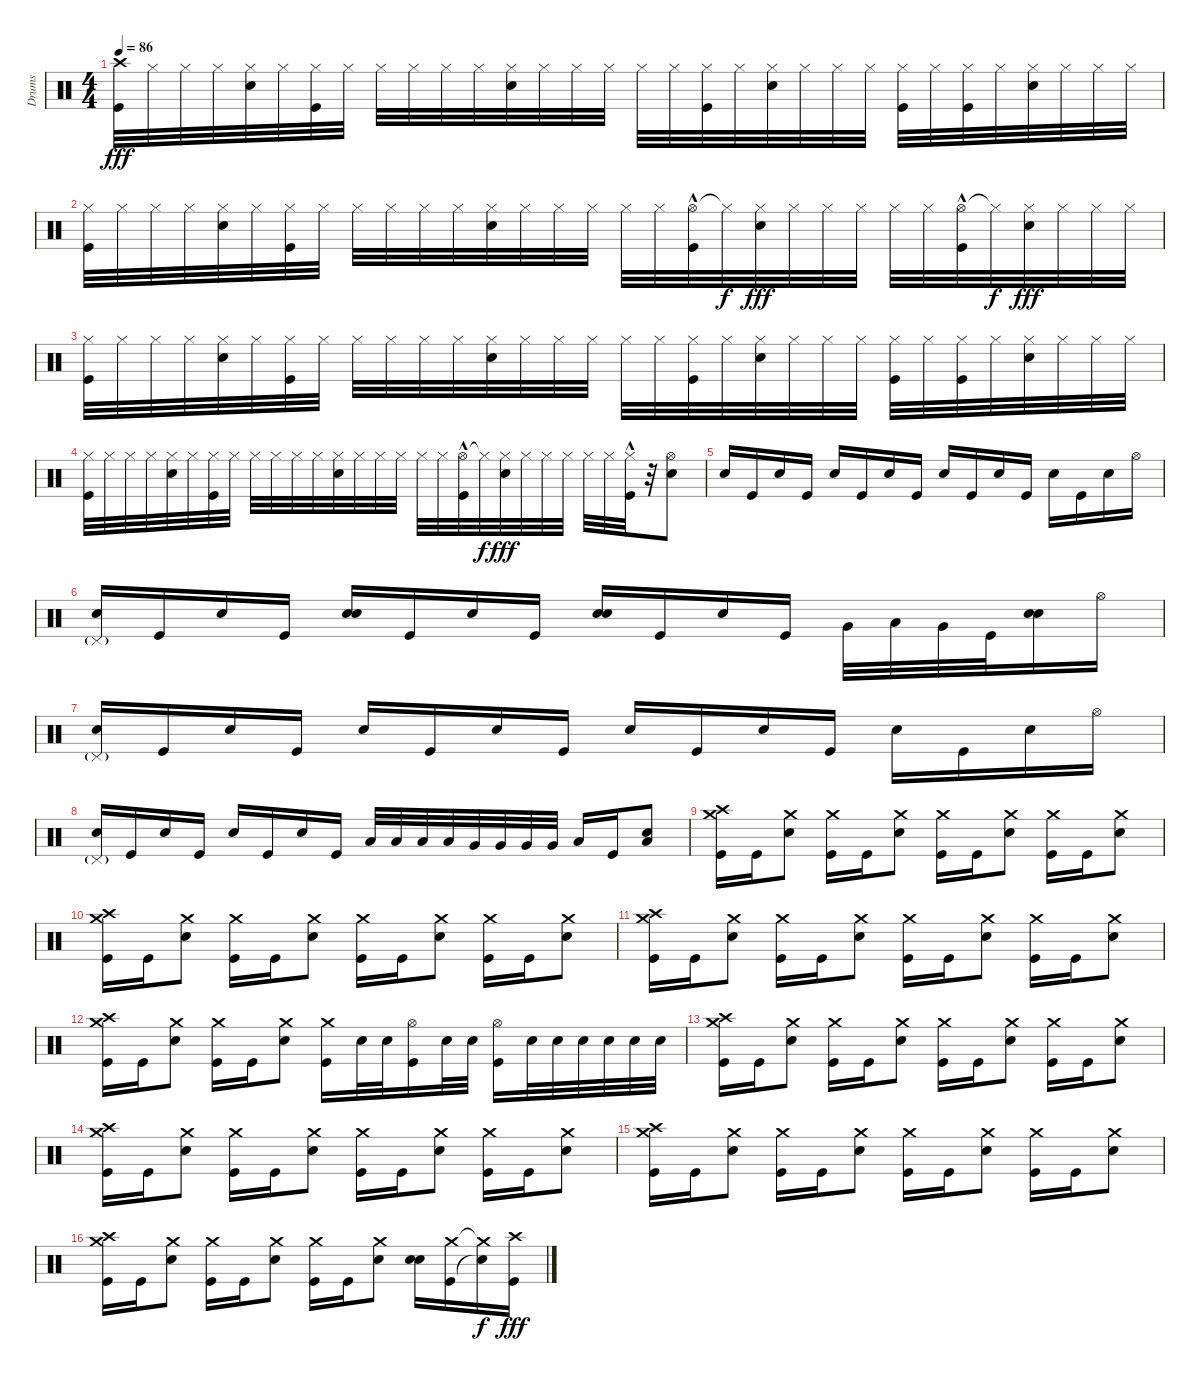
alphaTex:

\track ("Drums" "Drums") {instrument percussion}
\staff {score}
\articulation defaults
\ts (4 4)
\tempo 86
\clef neutral
\ks c
("Crash high (hit)" "Kick (hit)").32{dy fff} "Hi-Hat (closed)".32 "Hi-Hat (closed)".32 "Hi-Hat (closed)".32 ("Hi-Hat (closed)" "Electric Snare (hit)").32 "Hi-Hat (closed)".32 ("Hi-Hat (closed)" "Kick (hit)").32 "Hi-Hat (closed)".32 "Hi-Hat (closed)".32 "Hi-Hat (closed)".32 "Hi-Hat (closed)".32 "Hi-Hat (closed)".32 ("Hi-Hat (closed)" "Electric Snare (hit)").32 "Hi-Hat (closed)".32 "Hi-Hat (closed)".32 "Hi-Hat (closed)".32 "Hi-Hat (closed)".32 "Hi-Hat (closed)".32 ("Hi-Hat (closed)" "Kick (hit)").32 "Hi-Hat (closed)".32 ("Hi-Hat (closed)" "Electric Snare (hit)").32 "Hi-Hat (closed)".32 "Hi-Hat (closed)".32 "Hi-Hat (closed)".32 ("Hi-Hat (closed)" "Kick (hit)").32 "Hi-Hat (closed)".32 ("Hi-Hat (closed)" "Kick (hit)").32 "Hi-Hat (closed)".32 ("Hi-Hat (closed)" "Electric Snare (hit)").32 "Hi-Hat (closed)".32 "Hi-Hat (closed)".32 "Hi-Hat (closed)".32 |
("Hi-Hat (closed)" "Kick (hit)").32 "Hi-Hat (closed)".32 "Hi-Hat (closed)".32 "Hi-Hat (closed)".32 ("Hi-Hat (closed)" "Electric Snare (hit)").32 "Hi-Hat (closed)".32 ("Hi-Hat (closed)" "Kick (hit)").32 "Hi-Hat (closed)".32 "Hi-Hat (closed)".32 "Hi-Hat (closed)".32 "Hi-Hat (closed)".32 "Hi-Hat (closed)".32 ("Hi-Hat (closed)" "Electric Snare (hit)").32 "Hi-Hat (closed)".32 "Hi-Hat (closed)".32 "Hi-Hat (closed)".32 "Hi-Hat (closed)".32 "Hi-Hat (closed)".32 ("Hi-Hat (open)"{hac} "Kick (hit)").32 "Hi-Hat (closed)"{t}.32{dy f} ("Hi-Hat (closed)" "Electric Snare (hit)").32{dy fff} "Hi-Hat (closed)".32 "Hi-Hat (closed)".32 "Hi-Hat (closed)".32 "Hi-Hat (closed)".32 "Hi-Hat (closed)".32 ("Hi-Hat (open)"{hac} "Kick (hit)").32 "Hi-Hat (closed)"{t}.32{dy f} ("Hi-Hat (closed)" "Electric Snare (hit)").32{dy fff} "Hi-Hat (closed)".32 "Hi-Hat (closed)".32 "Hi-Hat (closed)".32 |
("Hi-Hat (closed)" "Kick (hit)").32 "Hi-Hat (closed)".32 "Hi-Hat (closed)".32 "Hi-Hat (closed)".32 ("Hi-Hat (closed)" "Electric Snare (hit)").32 "Hi-Hat (closed)".32 ("Hi-Hat (closed)" "Kick (hit)").32 "Hi-Hat (closed)".32 "Hi-Hat (closed)".32 "Hi-Hat (closed)".32 "Hi-Hat (closed)".32 "Hi-Hat (closed)".32 ("Hi-Hat (closed)" "Electric Snare (hit)").32 "Hi-Hat (closed)".32 "Hi-Hat (closed)".32 "Hi-Hat (closed)".32 "Hi-Hat (closed)".32 "Hi-Hat (closed)".32 ("Hi-Hat (closed)" "Kick (hit)").32 "Hi-Hat (closed)".32 ("Hi-Hat (closed)" "Electric Snare (hit)").32 "Hi-Hat (closed)".32 "Hi-Hat (closed)".32 "Hi-Hat (closed)".32 ("Hi-Hat (closed)" "Kick (hit)").32 "Hi-Hat (closed)".32 ("Hi-Hat (closed)" "Kick (hit)").32 "Hi-Hat (closed)".32 ("Hi-Hat (closed)" "Electric Snare (hit)").32 "Hi-Hat (closed)".32 "Hi-Hat (closed)".32 "Hi-Hat (closed)".32 |
("Hi-Hat (closed)" "Kick (hit)").32 "Hi-Hat (closed)".32 "Hi-Hat (closed)".32 "Hi-Hat (closed)".32 ("Hi-Hat (closed)" "Electric Snare (hit)").32 "Hi-Hat (closed)".32 ("Hi-Hat (closed)" "Kick (hit)").32 "Hi-Hat (closed)".32 "Hi-Hat (closed)".32 "Hi-Hat (closed)".32 "Hi-Hat (closed)".32 "Hi-Hat (closed)".32 ("Hi-Hat (closed)" "Electric Snare (hit)").32 "Hi-Hat (closed)".32 "Hi-Hat (closed)".32 "Hi-Hat (closed)".32 "Hi-Hat (closed)".32 "Hi-Hat (closed)".32 ("Hi-Hat (open)"{hac} "Kick (hit)").32 "Hi-Hat (closed)"{t}.32{dy f} ("Hi-Hat (closed)" "Electric Snare (hit)").32{dy fff} "Hi-Hat (closed)".32 "Hi-Hat (closed)".32 "Hi-Hat (closed)".32 "Hi-Hat (closed)".32 "Hi-Hat (closed)".32 ("Hi-Hat (closed)"{hac} "Kick (hit)").32 r.32 ("Hi-Hat (open)" "Electric Snare (hit)").8 |
"Electric Snare (hit)".16 "Kick (hit)".16 "Electric Snare (hit)".16 "Kick (hit)".16 "Electric Snare (hit)".16 "Kick (hit)".16 "Electric Snare (hit)".16 "Kick (hit)".16 "Electric Snare (hit)".16 "Kick (hit)".16 "Electric Snare (hit)".16 "Kick (hit)".16 "Electric Snare (hit)".16 "Kick (hit)".16 "Electric Snare (hit)".16 "Hi-Hat (open)".16 |
("Pedal Hi-Hat (hit)"{g} "Electric Snare (hit)").16 "Kick (hit)".16 "Electric Snare (hit)".16 "Kick (hit)".16 ("Electric Snare (hit)" "Electric Snare (hit)").16 "Kick (hit)".16 "Electric Snare (hit)".16 "Kick (hit)".16 ("Electric Snare (hit)" "Electric Snare (hit)").16 "Kick (hit)".16 "Electric Snare (hit)".16 "Kick (hit)".16 "Very Low Tom (hit)".32 "Low Tom (hit)".32 "Very Low Tom (hit)".32 "Kick (hit)".32 ("Electric Snare (hit)" "Electric Snare (hit)").16 "Hi-Hat (open)".16 |
("Pedal Hi-Hat (hit)"{g} "Electric Snare (hit)").16 "Kick (hit)".16 "Electric Snare (hit)".16 "Kick (hit)".16 "Electric Snare (hit)".16 "Kick (hit)".16 "Electric Snare (hit)".16 "Kick (hit)".16 "Electric Snare (hit)".16 "Kick (hit)".16 "Electric Snare (hit)".16 "Kick (hit)".16 "Electric Snare (hit)".16 "Kick (hit)".16 "Electric Snare (hit)".16 "Hi-Hat (open)".16 |
("Pedal Hi-Hat (hit)"{g} "Electric Snare (hit)").16 "Kick (hit)".16 "Electric Snare (hit)".16 "Kick (hit)".16 "Electric Snare (hit)".16 "Kick (hit)".16 "Electric Snare (hit)".16 "Kick (hit)".16 "Low Tom (hit)".32 "Low Tom (hit)".32 "Low Tom (hit)".32 "Low Tom (hit)".32 "Very Low Tom (hit)".32 "Very Low Tom (hit)".32 "Very Low Tom (hit)".32 "Very Low Tom (hit)".32 "Low Floor Tom (hit)".16 "Kick (hit)".16 ("Low Floor Tom (hit)" "Electric Snare (hit)").8 |
("Crash high (hit)" "Crash medium (hit)" "Kick (hit)").16 "Kick (hit)".16 ("Crash medium (hit)" "Electric Snare (hit)").8 ("Crash medium (hit)" "Kick (hit)").16 "Kick (hit)".16 ("Crash medium (hit)" "Electric Snare (hit)").8 ("Crash medium (hit)" "Kick (hit)").16 "Kick (hit)".16 ("Crash medium (hit)" "Electric Snare (hit)").8 ("Crash medium (hit)" "Kick (hit)").16 "Kick (hit)".16 ("Crash medium (hit)" "Electric Snare (hit)").8 |
("Crash high (hit)" "Crash medium (hit)" "Kick (hit)").16 "Kick (hit)".16 ("Crash medium (hit)" "Electric Snare (hit)").8 ("Crash medium (hit)" "Kick (hit)").16 "Kick (hit)".16 ("Crash medium (hit)" "Electric Snare (hit)").8 ("Crash medium (hit)" "Kick (hit)").16 "Kick (hit)".16 ("Crash medium (hit)" "Electric Snare (hit)").8 ("Crash medium (hit)" "Kick (hit)").16 "Kick (hit)".16 ("Crash medium (hit)" "Electric Snare (hit)").8 |
("Crash high (hit)" "Crash medium (hit)" "Kick (hit)").16 "Kick (hit)".16 ("Crash medium (hit)" "Electric Snare (hit)").8 ("Crash medium (hit)" "Kick (hit)").16 "Kick (hit)".16 ("Crash medium (hit)" "Electric Snare (hit)").8 ("Crash medium (hit)" "Kick (hit)").16 "Kick (hit)".16 ("Crash medium (hit)" "Electric Snare (hit)").8 ("Crash medium (hit)" "Kick (hit)").16 "Kick (hit)".16 ("Crash medium (hit)" "Electric Snare (hit)").8 |
("Crash high (hit)" "Crash medium (hit)" "Kick (hit)").16 "Kick (hit)".16 ("Crash medium (hit)" "Electric Snare (hit)").8 ("Crash medium (hit)" "Kick (hit)").16 "Kick (hit)".16 ("Crash medium (hit)" "Electric Snare (hit)").8 ("Crash medium (hit)" "Kick (hit)").16 "Electric Snare (hit)".32 "Electric Snare (hit)".32 ("Hi-Hat (open)" "Kick (hit)").16 "Electric Snare (hit)".32 "Electric Snare (hit)".32 ("Hi-Hat (open)" "Kick (hit)").16 "Electric Snare (hit)".32 "Electric Snare (hit)".32 "Electric Snare (hit)".32 "Electric Snare (hit)".32 "Electric Snare (hit)".32 "Electric Snare (hit)".32 |
("Crash high (hit)" "Crash medium (hit)" "Kick (hit)").16 "Kick (hit)".16 ("Crash medium (hit)" "Electric Snare (hit)").8 ("Crash medium (hit)" "Kick (hit)").16 "Kick (hit)".16 ("Crash medium (hit)" "Electric Snare (hit)").8 ("Crash medium (hit)" "Kick (hit)").16 "Kick (hit)".16 ("Crash medium (hit)" "Electric Snare (hit)").8 ("Crash medium (hit)" "Kick (hit)").16 "Kick (hit)".16 ("Crash medium (hit)" "Electric Snare (hit)").8 |
("Crash high (hit)" "Crash medium (hit)" "Kick (hit)").16 "Kick (hit)".16 ("Crash medium (hit)" "Electric Snare (hit)").8 ("Crash medium (hit)" "Kick (hit)").16 "Kick (hit)".16 ("Crash medium (hit)" "Electric Snare (hit)").8 ("Crash medium (hit)" "Kick (hit)").16 "Kick (hit)".16 ("Crash medium (hit)" "Electric Snare (hit)").8 ("Crash medium (hit)" "Kick (hit)").16 "Kick (hit)".16 ("Crash medium (hit)" "Electric Snare (hit)").8 |
("Crash high (hit)" "Crash medium (hit)" "Kick (hit)").16 "Kick (hit)".16 ("Crash medium (hit)" "Electric Snare (hit)").8 ("Crash medium (hit)" "Kick (hit)").16 "Kick (hit)".16 ("Crash medium (hit)" "Electric Snare (hit)").8 ("Crash medium (hit)" "Kick (hit)").16 "Kick (hit)".16 ("Crash medium (hit)" "Electric Snare (hit)").8 ("Crash medium (hit)" "Kick (hit)").16 "Kick (hit)".16 ("Crash medium (hit)" "Electric Snare (hit)").8 |
("Crash high (hit)" "Crash medium (hit)" "Kick (hit)").16 "Kick (hit)".16 ("Crash medium (hit)" "Electric Snare (hit)").8 ("Crash medium (hit)" "Kick (hit)").16 "Kick (hit)".16 ("Crash medium (hit)" "Electric Snare (hit)").8 ("Crash medium (hit)" "Kick (hit)").16 "Kick (hit)".16 ("Crash medium (hit)" "Electric Snare (hit)").8 ("Electric Snare (hit)" "Electric Snare (hit)").16 ("Crash medium (hit)" "Kick (hit)").16 ("Crash medium (hit)"{t} "Electric Snare (hit)"{t}).16{dy f} ("Crash high (hit)" "Kick (hit)").16{dy fff}
